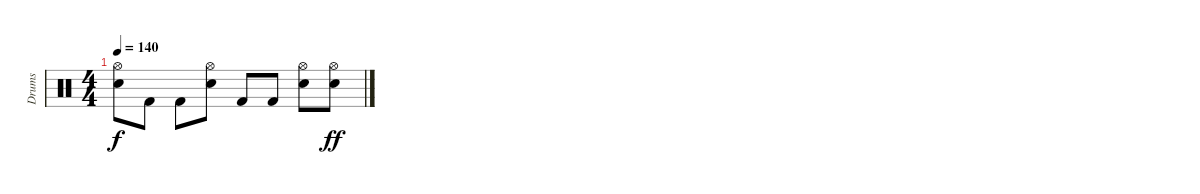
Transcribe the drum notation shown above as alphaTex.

\track ("Drums" "Drums") {instrument percussion}
\staff {score}
\articulation defaults
\ts (4 4)
\tempo 140
\clef neutral
\ks c
("Hi-Hat (open)" "Snare (hit) 2").8{dy f} "Kick (hit) 2".8 "Kick (hit) 2".8 ("Hi-Hat (open)" "Snare (hit) 2").8 "Kick (hit) 2".8 "Kick (hit) 2".8 ("Hi-Hat (open)" "Snare (hit) 2").8 ("Hi-Hat (open)" "Snare (hit) 2").8{dy ff}
